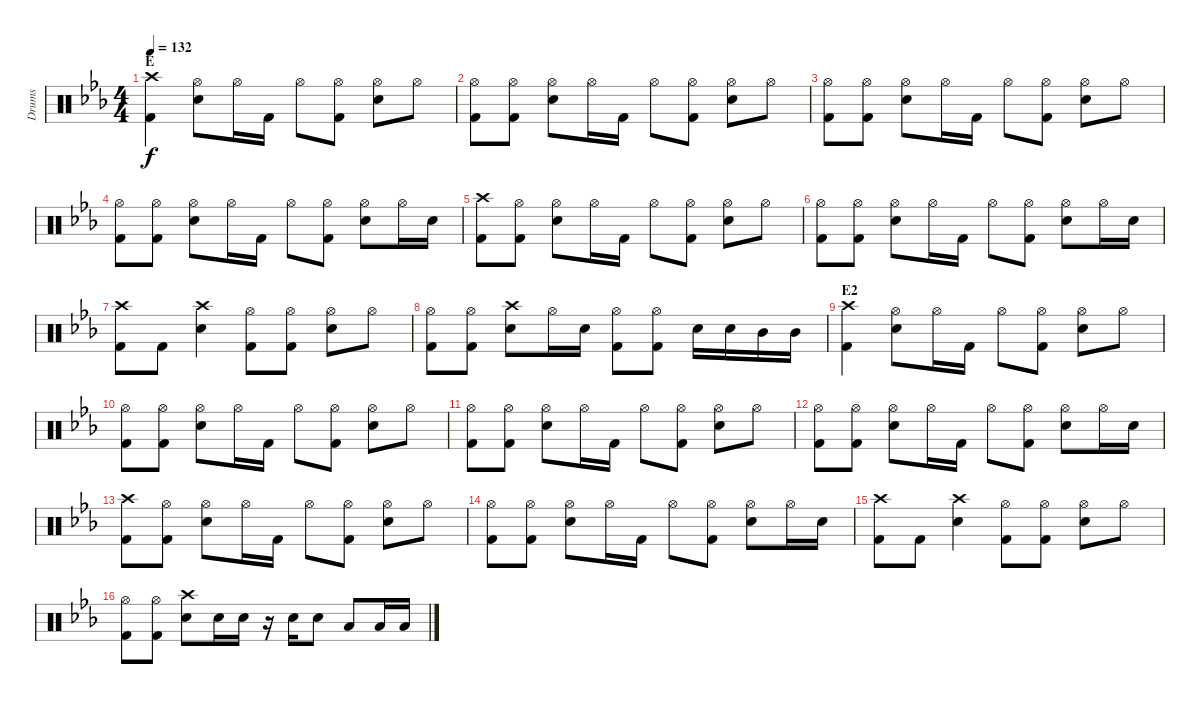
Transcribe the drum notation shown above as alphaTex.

\track ("Drums" "Drums") {instrument percussion}
\staff {score}
\articulation defaults
\ts (4 4)
\section ("" "E")
\tempo 132
\clef neutral
\ks eb
("Crash high (hit)" "Kick (hit) 2").4{dy f} ("Hi-Hat (open)" "Snare (hit) 2").8 "Hi-Hat (open)".16 "Kick (hit) 2".16 "Hi-Hat (open)".8 ("Hi-Hat (open)" "Kick (hit) 2").8 ("Hi-Hat (open)" "Snare (hit) 2").8 "Hi-Hat (open)".8 |
("Hi-Hat (open)" "Kick (hit) 2").8 ("Hi-Hat (open)" "Kick (hit) 2").8 ("Hi-Hat (open)" "Snare (hit) 2").8 "Hi-Hat (open)".16 "Kick (hit) 2".16 "Hi-Hat (open)".8 ("Hi-Hat (open)" "Kick (hit) 2").8 ("Hi-Hat (open)" "Snare (hit) 2").8 "Hi-Hat (open)".8 |
("Hi-Hat (open)" "Kick (hit) 2").8 ("Hi-Hat (open)" "Kick (hit) 2").8 ("Hi-Hat (open)" "Snare (hit) 2").8 "Hi-Hat (open)".16 "Kick (hit) 2".16 "Hi-Hat (open)".8 ("Hi-Hat (open)" "Kick (hit) 2").8 ("Hi-Hat (open)" "Snare (hit) 2").8 "Hi-Hat (open)".8 |
("Hi-Hat (open)" "Kick (hit) 2").8 ("Hi-Hat (open)" "Kick (hit) 2").8 ("Hi-Hat (open)" "Snare (hit) 2").8 "Hi-Hat (open)".16 "Kick (hit) 2".16 "Hi-Hat (open)".8 ("Hi-Hat (open)" "Kick (hit) 2").8 ("Hi-Hat (open)" "Snare (hit) 2").8 "Hi-Hat (open)".16 "Snare (hit) 2".16 |
("Crash high (hit)" "Kick (hit) 2").8 ("Hi-Hat (open)" "Kick (hit) 2").8 ("Hi-Hat (open)" "Snare (hit) 2").8 "Hi-Hat (open)".16 "Kick (hit) 2".16 "Hi-Hat (open)".8 ("Hi-Hat (open)" "Kick (hit) 2").8 ("Hi-Hat (open)" "Snare (hit) 2").8 "Hi-Hat (open)".8 |
("Hi-Hat (open)" "Kick (hit) 2").8 ("Hi-Hat (open)" "Kick (hit) 2").8 ("Hi-Hat (open)" "Snare (hit) 2").8 "Hi-Hat (open)".16 "Kick (hit) 2".16 "Hi-Hat (open)".8 ("Hi-Hat (open)" "Kick (hit) 2").8 ("Hi-Hat (open)" "Snare (hit) 2").8 "Hi-Hat (open)".16 "Snare (hit) 2".16 |
("Crash high (hit)" "Kick (hit) 2").8 "Kick (hit) 2".8 ("Crash high (hit)" "Snare (hit) 2").4 ("Hi-Hat (open)" "Kick (hit) 2").8 ("Hi-Hat (open)" "Kick (hit) 2").8 ("Hi-Hat (open)" "Snare (hit) 2").8 "Hi-Hat (open)".8 |
("Hi-Hat (open)" "Kick (hit) 2").8 ("Hi-Hat (open)" "Kick (hit) 2").8 ("Crash high (hit)" "Snare (hit) 2").8 "Hi-Hat (open)".16 "Snare (hit) 2".16 ("Hi-Hat (open)" "Kick (hit) 2").8 ("Hi-Hat (open)" "Kick (hit) 2").8 "Snare (hit) 2".16 "Snare (hit) 2".16 "Mid Tom (hit)".16 "Mid Tom (hit)".16 |
\section ("" "E2")
("Crash high (hit)" "Kick (hit) 2").4 ("Hi-Hat (open)" "Snare (hit) 2").8 "Hi-Hat (open)".16 "Kick (hit) 2".16 "Hi-Hat (open)".8 ("Hi-Hat (open)" "Kick (hit) 2").8 ("Hi-Hat (open)" "Snare (hit) 2").8 "Hi-Hat (open)".8 |
("Hi-Hat (open)" "Kick (hit) 2").8 ("Hi-Hat (open)" "Kick (hit) 2").8 ("Hi-Hat (open)" "Snare (hit) 2").8 "Hi-Hat (open)".16 "Kick (hit) 2".16 "Hi-Hat (open)".8 ("Hi-Hat (open)" "Kick (hit) 2").8 ("Hi-Hat (open)" "Snare (hit) 2").8 "Hi-Hat (open)".8 |
("Hi-Hat (open)" "Kick (hit) 2").8 ("Hi-Hat (open)" "Kick (hit) 2").8 ("Hi-Hat (open)" "Snare (hit) 2").8 "Hi-Hat (open)".16 "Kick (hit) 2".16 "Hi-Hat (open)".8 ("Hi-Hat (open)" "Kick (hit) 2").8 ("Hi-Hat (open)" "Snare (hit) 2").8 "Hi-Hat (open)".8 |
("Hi-Hat (open)" "Kick (hit) 2").8 ("Hi-Hat (open)" "Kick (hit) 2").8 ("Hi-Hat (open)" "Snare (hit) 2").8 "Hi-Hat (open)".16 "Kick (hit) 2".16 "Hi-Hat (open)".8 ("Hi-Hat (open)" "Kick (hit) 2").8 ("Hi-Hat (open)" "Snare (hit) 2").8 "Hi-Hat (open)".16 "Snare (hit) 2".16 |
("Crash high (hit)" "Kick (hit) 2").8 ("Hi-Hat (open)" "Kick (hit) 2").8 ("Hi-Hat (open)" "Snare (hit) 2").8 "Hi-Hat (open)".16 "Kick (hit) 2".16 "Hi-Hat (open)".8 ("Hi-Hat (open)" "Kick (hit) 2").8 ("Hi-Hat (open)" "Snare (hit) 2").8 "Hi-Hat (open)".8 |
("Hi-Hat (open)" "Kick (hit) 2").8 ("Hi-Hat (open)" "Kick (hit) 2").8 ("Hi-Hat (open)" "Snare (hit) 2").8 "Hi-Hat (open)".16 "Kick (hit) 2".16 "Hi-Hat (open)".8 ("Hi-Hat (open)" "Kick (hit) 2").8 ("Hi-Hat (open)" "Snare (hit) 2").8 "Hi-Hat (open)".16 "Snare (hit) 2".16 |
("Crash high (hit)" "Kick (hit) 2").8 "Kick (hit) 2".8 ("Crash high (hit)" "Snare (hit) 2").4 ("Hi-Hat (open)" "Kick (hit) 2").8 ("Hi-Hat (open)" "Kick (hit) 2").8 ("Hi-Hat (open)" "Snare (hit) 2").8 "Hi-Hat (open)".8 |
("Hi-Hat (open)" "Kick (hit) 2").8 ("Hi-Hat (open)" "Kick (hit) 2").8 ("Crash high (hit)" "Snare (hit) 2").8 "Snare (hit) 2".16 "Snare (hit) 2".16 r.16 "Snare (hit) 2".16 "Snare (hit) 2".8 "Low Tom (hit)".8 "Low Tom (hit)".16 "Low Tom (hit)".16
